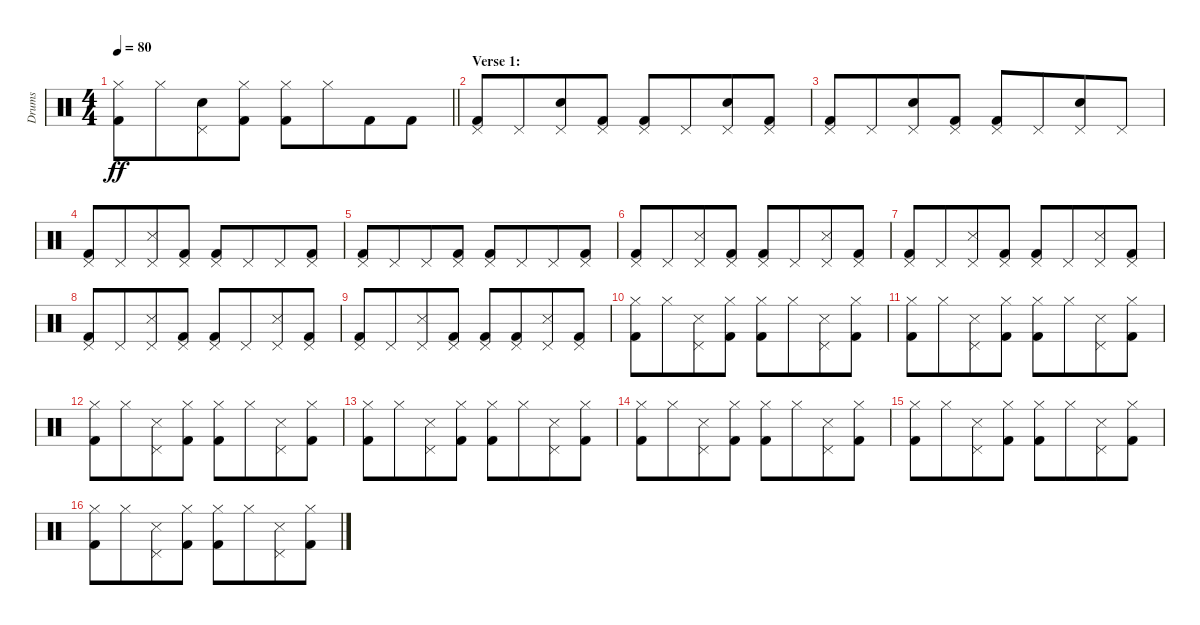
\track ("Drums" "Drums") {instrument percussion}
\staff {score}
\articulation defaults
\ts (4 4)
\tempo 80
\clef neutral
\barLineRight lightlight
\ks c
("Hi-Hat (closed)" "Kick (hit) 2").8{dy ff} "Hi-Hat (closed)".8{beam merge} ("Pedal Hi-Hat (hit)" "Snare (hit) 2").8 ("Hi-Hat (closed)" "Kick (hit) 2").8 ("Hi-Hat (closed)" "Kick (hit) 2").8 "Hi-Hat (closed)".8{beam merge} "Kick (hit) 2".8 "Kick (hit) 2".8 |
\section ("" "Verse 1:")
("Pedal Hi-Hat (hit)" "Kick (hit) 2").8 "Pedal Hi-Hat (hit)".8{beam merge} ("Pedal Hi-Hat (hit)" "Snare (hit) 2").8 ("Pedal Hi-Hat (hit)" "Kick (hit) 2").8 ("Pedal Hi-Hat (hit)" "Kick (hit) 2").8 "Pedal Hi-Hat (hit)".8{beam merge} ("Pedal Hi-Hat (hit)" "Snare (hit) 2").8 ("Pedal Hi-Hat (hit)" "Kick (hit) 2").8 |
("Pedal Hi-Hat (hit)" "Kick (hit) 2").8 "Pedal Hi-Hat (hit)".8{beam merge} ("Pedal Hi-Hat (hit)" "Snare (hit) 2").8 ("Pedal Hi-Hat (hit)" "Kick (hit) 2").8 ("Pedal Hi-Hat (hit)" "Kick (hit) 2").8 "Pedal Hi-Hat (hit)".8{beam merge} ("Pedal Hi-Hat (hit)" "Snare (hit) 2").8 "Pedal Hi-Hat (hit)".8 |
("Pedal Hi-Hat (hit)" "Kick (hit) 2").8 "Pedal Hi-Hat (hit)".8{beam merge} ("Pedal Hi-Hat (hit)" "Snare (side stick) 3").8 ("Pedal Hi-Hat (hit)" "Kick (hit) 2").8 ("Pedal Hi-Hat (hit)" "Kick (hit) 2").8 "Pedal Hi-Hat (hit)".8{beam merge} "Pedal Hi-Hat (hit)".8 ("Pedal Hi-Hat (hit)" "Kick (hit) 2").8 |
("Pedal Hi-Hat (hit)" "Kick (hit) 2").8 "Pedal Hi-Hat (hit)".8{beam merge} "Pedal Hi-Hat (hit)".8 ("Pedal Hi-Hat (hit)" "Kick (hit) 2").8 ("Pedal Hi-Hat (hit)" "Kick (hit) 2").8 "Pedal Hi-Hat (hit)".8{beam merge} "Pedal Hi-Hat (hit)".8 ("Pedal Hi-Hat (hit)" "Kick (hit) 2").8 |
("Pedal Hi-Hat (hit)" "Kick (hit) 2").8 "Pedal Hi-Hat (hit)".8{beam merge} ("Pedal Hi-Hat (hit)" "Snare (side stick) 3").8 ("Pedal Hi-Hat (hit)" "Kick (hit) 2").8 ("Pedal Hi-Hat (hit)" "Kick (hit) 2").8 "Pedal Hi-Hat (hit)".8{beam merge} ("Pedal Hi-Hat (hit)" "Snare (side stick) 3").8 ("Pedal Hi-Hat (hit)" "Kick (hit) 2").8 |
("Pedal Hi-Hat (hit)" "Kick (hit) 2").8 "Pedal Hi-Hat (hit)".8{beam merge} ("Pedal Hi-Hat (hit)" "Snare (side stick) 3").8 ("Pedal Hi-Hat (hit)" "Kick (hit) 2").8 ("Pedal Hi-Hat (hit)" "Kick (hit) 2").8 "Pedal Hi-Hat (hit)".8{beam merge} ("Pedal Hi-Hat (hit)" "Snare (side stick) 3").8 ("Pedal Hi-Hat (hit)" "Kick (hit) 2").8 |
("Pedal Hi-Hat (hit)" "Kick (hit) 2").8 "Pedal Hi-Hat (hit)".8{beam merge} ("Pedal Hi-Hat (hit)" "Snare (side stick) 3").8 ("Pedal Hi-Hat (hit)" "Kick (hit) 2").8 ("Pedal Hi-Hat (hit)" "Kick (hit) 2").8 "Pedal Hi-Hat (hit)".8{beam merge} ("Pedal Hi-Hat (hit)" "Snare (side stick) 3").8 ("Pedal Hi-Hat (hit)" "Kick (hit) 2").8 |
("Pedal Hi-Hat (hit)" "Kick (hit) 2").8 "Pedal Hi-Hat (hit)".8{beam merge} ("Pedal Hi-Hat (hit)" "Snare (side stick) 3").8 ("Pedal Hi-Hat (hit)" "Kick (hit) 2").8 ("Pedal Hi-Hat (hit)" "Kick (hit) 2").8 ("Pedal Hi-Hat (hit)" "Kick (hit) 2").8{beam merge} ("Pedal Hi-Hat (hit)" "Snare (side stick) 3").8 ("Pedal Hi-Hat (hit)" "Kick (hit) 2").8 |
("Hi-Hat (closed)" "Kick (hit) 2").8 "Hi-Hat (closed)".8{beam merge} ("Pedal Hi-Hat (hit)" "Snare (side stick) 3").8 ("Hi-Hat (closed)" "Kick (hit) 2").8 ("Hi-Hat (closed)" "Kick (hit) 2").8 "Hi-Hat (closed)".8{beam merge} ("Pedal Hi-Hat (hit)" "Snare (side stick) 3").8 ("Hi-Hat (closed)" "Kick (hit) 2").8 |
("Hi-Hat (closed)" "Kick (hit) 2").8 "Hi-Hat (closed)".8{beam merge} ("Pedal Hi-Hat (hit)" "Snare (side stick) 3").8 ("Hi-Hat (closed)" "Kick (hit) 2").8 ("Hi-Hat (closed)" "Kick (hit) 2").8 "Hi-Hat (closed)".8{beam merge} ("Pedal Hi-Hat (hit)" "Snare (side stick) 3").8 ("Hi-Hat (closed)" "Kick (hit) 2").8 |
("Hi-Hat (closed)" "Kick (hit) 2").8 "Hi-Hat (closed)".8{beam merge} ("Pedal Hi-Hat (hit)" "Snare (side stick) 3").8 ("Hi-Hat (closed)" "Kick (hit) 2").8 ("Hi-Hat (closed)" "Kick (hit) 2").8 "Hi-Hat (closed)".8{beam merge} ("Pedal Hi-Hat (hit)" "Snare (side stick) 3").8 ("Hi-Hat (closed)" "Kick (hit) 2").8 |
("Hi-Hat (closed)" "Kick (hit) 2").8 "Hi-Hat (closed)".8{beam merge} ("Pedal Hi-Hat (hit)" "Snare (side stick) 3").8 ("Hi-Hat (closed)" "Kick (hit) 2").8 ("Hi-Hat (closed)" "Kick (hit) 2").8 "Hi-Hat (closed)".8{beam merge} ("Pedal Hi-Hat (hit)" "Snare (side stick) 3").8 ("Hi-Hat (closed)" "Kick (hit) 2").8 |
("Hi-Hat (closed)" "Kick (hit) 2").8 "Hi-Hat (closed)".8{beam merge} ("Pedal Hi-Hat (hit)" "Snare (side stick) 3").8 ("Hi-Hat (closed)" "Kick (hit) 2").8 ("Hi-Hat (closed)" "Kick (hit) 2").8 "Hi-Hat (closed)".8{beam merge} ("Pedal Hi-Hat (hit)" "Snare (side stick) 3").8 ("Hi-Hat (closed)" "Kick (hit) 2").8 |
("Hi-Hat (closed)" "Kick (hit) 2").8 "Hi-Hat (closed)".8{beam merge} ("Pedal Hi-Hat (hit)" "Snare (side stick) 3").8 ("Hi-Hat (closed)" "Kick (hit) 2").8 ("Hi-Hat (closed)" "Kick (hit) 2").8 "Hi-Hat (closed)".8{beam merge} ("Pedal Hi-Hat (hit)" "Snare (side stick) 3").8 ("Hi-Hat (closed)" "Kick (hit) 2").8 |
("Hi-Hat (closed)" "Kick (hit) 2").8 "Hi-Hat (closed)".8{beam merge} ("Pedal Hi-Hat (hit)" "Snare (side stick) 3").8 ("Hi-Hat (closed)" "Kick (hit) 2").8 ("Hi-Hat (closed)" "Kick (hit) 2").8 "Hi-Hat (closed)".8{beam merge} ("Pedal Hi-Hat (hit)" "Snare (side stick) 3").8 ("Hi-Hat (closed)" "Kick (hit) 2").8
